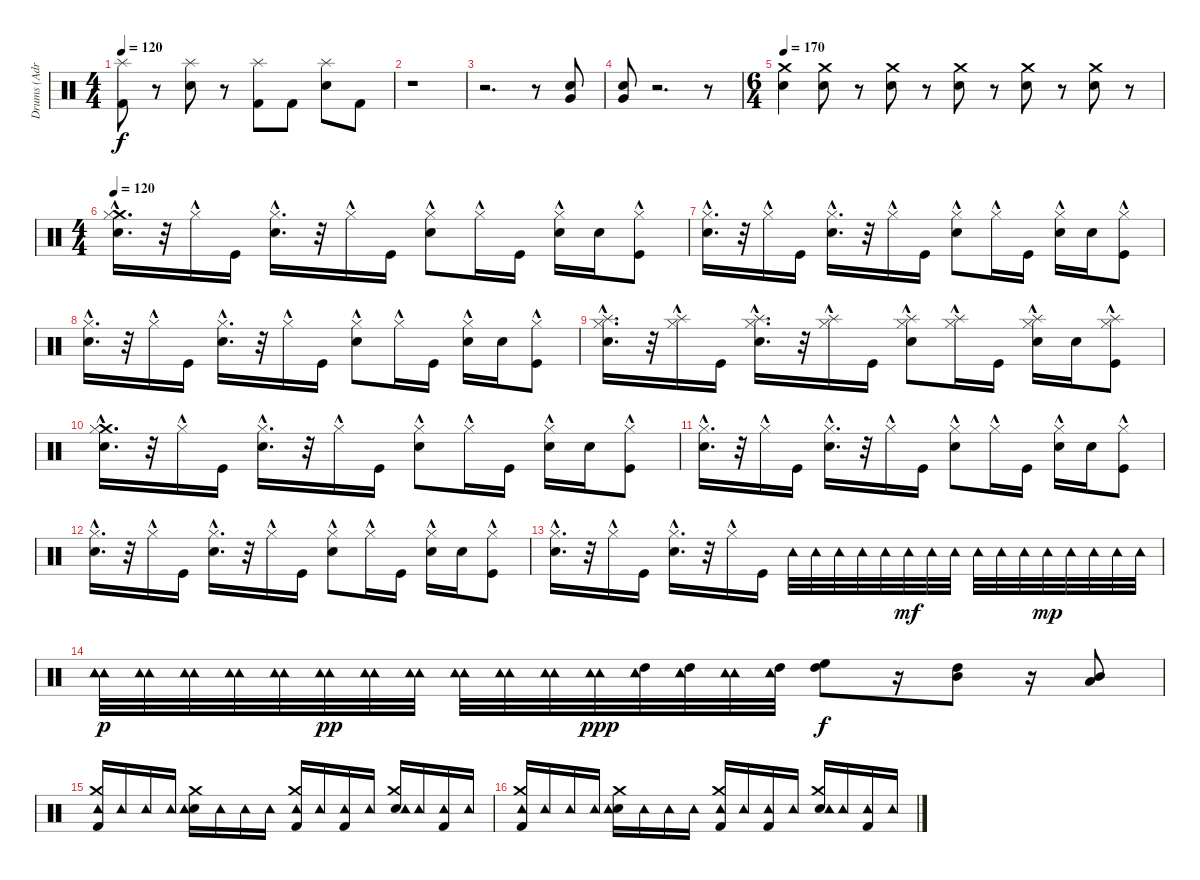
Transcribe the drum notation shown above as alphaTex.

\track ("Drums (Adrian Young)" "Drums (Adr") {instrument percussion}
\staff {score}
\articulation defaults
\ts (4 4)
\tempo 120
\clef neutral
\ks c
("Kick (hit) 2" "Splash (hit)").8{dy f} r.8 ("Snare (hit) 2" "Splash (hit)").8 r.8 ("Kick (hit) 2" "Splash (hit)").8 "Kick (hit) 2".8 ("Snare (hit) 2" "Splash (hit)").8 "Kick (hit) 2".8 |
r.1 |
r.2{d} r.8 ("Very Low Tom (hit)" "Snare (hit) 2").8 |
("Very Low Tom (hit)" "Snare (hit) 2").8 r.2{d} r.8 |
\ts (6 4)
\tempo 170
("Crash medium (hit)" "Snare (hit) 2").4 ("Crash medium (hit)" "Snare (hit) 2").8 r.8 ("Crash medium (hit)" "Snare (hit) 2").8 r.8 ("Crash medium (hit)" "Snare (hit) 2").8 r.8 ("Crash medium (hit)" "Snare (hit) 2").8 r.8 ("Crash medium (hit)" "Snare (hit) 2").8 r.8 |
\ts (4 4)
\tempo 120
("Crash medium (hit)"{hac} "Hi-Hat (closed)"{hac} "Electric Snare (hit)"{hac}).16{d} r.32 "Hi-Hat (closed)"{hac}.16 "Kick (hit)".16 ("Hi-Hat (closed)"{hac} "Electric Snare (hit)"{hac}).16{d} r.32 "Hi-Hat (closed)"{hac}.16 "Kick (hit)".16 ("Hi-Hat (closed)"{hac} "Electric Snare (hit)").8 "Hi-Hat (closed)"{hac}.16 "Kick (hit)".16 ("Hi-Hat (closed)"{hac} "Electric Snare (hit)").16 "Electric Snare (hit)".16 ("Hi-Hat (closed)"{hac} "Kick (hit)").8 |
("Hi-Hat (closed)"{hac} "Electric Snare (hit)"{hac}).16{d} r.32 "Hi-Hat (closed)"{hac}.16 "Kick (hit)".16 ("Hi-Hat (closed)"{hac} "Electric Snare (hit)"{hac}).16{d} r.32 "Hi-Hat (closed)"{hac}.16 "Kick (hit)".16 ("Hi-Hat (closed)"{hac} "Electric Snare (hit)").8 "Hi-Hat (closed)"{hac}.16 "Kick (hit)".16 ("Hi-Hat (closed)"{hac} "Electric Snare (hit)").16 "Electric Snare (hit)".16 ("Hi-Hat (closed)"{hac} "Kick (hit)").8 |
("Hi-Hat (closed)"{hac} "Electric Snare (hit)"{hac}).16{d} r.32 "Hi-Hat (closed)"{hac}.16 "Kick (hit)".16 ("Hi-Hat (closed)"{hac} "Electric Snare (hit)"{hac}).16{d} r.32 "Hi-Hat (closed)"{hac}.16 "Kick (hit)".16 ("Hi-Hat (closed)"{hac} "Electric Snare (hit)").8 "Hi-Hat (closed)"{hac}.16 "Kick (hit)".16 ("Hi-Hat (closed)"{hac} "Electric Snare (hit)").16 "Electric Snare (hit)".16 ("Hi-Hat (closed)"{hac} "Kick (hit)").8 |
("Hi-Hat (closed)"{hac} "Electric Snare (hit)"{hac} "Splash (hit)"{hac}).16{d} r.32 ("Hi-Hat (closed)"{hac} "Splash (hit)"{hac}).16 "Kick (hit)".16 ("Hi-Hat (closed)"{hac} "Electric Snare (hit)"{hac} "Splash (hit)"{hac}).16{d} r.32 ("Hi-Hat (closed)"{hac} "Splash (hit)"{hac}).16 "Kick (hit)".16 ("Hi-Hat (closed)"{hac} "Electric Snare (hit)" "Splash (hit)"{hac}).8 ("Hi-Hat (closed)"{hac} "Splash (hit)"{hac}).16 "Kick (hit)".16 ("Hi-Hat (closed)"{hac} "Electric Snare (hit)" "Splash (hit)"{hac}).16 "Electric Snare (hit)".16 ("Hi-Hat (closed)"{hac} "Kick (hit)" "Splash (hit)"{hac}).8 |
("Crash medium (hit)"{hac} "Hi-Hat (closed)"{hac} "Electric Snare (hit)"{hac}).16{d} r.32 "Hi-Hat (closed)"{hac}.16 "Kick (hit)".16 ("Hi-Hat (closed)"{hac} "Electric Snare (hit)"{hac}).16{d} r.32 "Hi-Hat (closed)"{hac}.16 "Kick (hit)".16 ("Hi-Hat (closed)"{hac} "Electric Snare (hit)").8 "Hi-Hat (closed)"{hac}.16 "Kick (hit)".16 ("Hi-Hat (closed)"{hac} "Electric Snare (hit)").16 "Electric Snare (hit)".16 ("Hi-Hat (closed)"{hac} "Kick (hit)").8 |
("Hi-Hat (closed)"{hac} "Electric Snare (hit)"{hac}).16{d} r.32 "Hi-Hat (closed)"{hac}.16 "Kick (hit)".16 ("Hi-Hat (closed)"{hac} "Electric Snare (hit)"{hac}).16{d} r.32 "Hi-Hat (closed)"{hac}.16 "Kick (hit)".16 ("Hi-Hat (closed)"{hac} "Electric Snare (hit)").8 "Hi-Hat (closed)"{hac}.16 "Kick (hit)".16 ("Hi-Hat (closed)"{hac} "Electric Snare (hit)").16 "Electric Snare (hit)".16 ("Hi-Hat (closed)"{hac} "Kick (hit)").8 |
("Hi-Hat (closed)"{hac} "Electric Snare (hit)"{hac}).16{d} r.32 "Hi-Hat (closed)"{hac}.16 "Kick (hit)".16 ("Hi-Hat (closed)"{hac} "Electric Snare (hit)"{hac}).16{d} r.32 "Hi-Hat (closed)"{hac}.16 "Kick (hit)".16 ("Hi-Hat (closed)"{hac} "Electric Snare (hit)").8 "Hi-Hat (closed)"{hac}.16 "Kick (hit)".16 ("Hi-Hat (closed)"{hac} "Electric Snare (hit)").16 "Electric Snare (hit)".16 ("Hi-Hat (closed)"{hac} "Kick (hit)").8 |
("Hi-Hat (closed)"{hac} "Electric Snare (hit)"{hac}).16{d} r.32 "Hi-Hat (closed)"{hac}.16 "Kick (hit)".16 ("Hi-Hat (closed)"{hac} "Electric Snare (hit)"{hac}).16{d} r.32 "Hi-Hat (closed)"{hac}.16 "Kick (hit)".16 "Tambourine (hit)".32 "Tambourine (hit)".32 "Tambourine (hit)".32 "Tambourine (hit)".32 "Tambourine (hit)".32 "Tambourine (hit)".32{dy mf} "Tambourine (hit)".32 "Tambourine (hit)".32 "Tambourine (hit)".32 "Tambourine (hit)".32 "Tambourine (hit)".32 "Tambourine (hit)".32{dy mp} "Tambourine (hit)".32 "Tambourine (hit)".32 "Tambourine (hit)".32 "Tambourine (hit)".32 |
("Tambourine (hit)" "Tambourine (hit)" "Tambourine (hit)").32{dy p} ("Tambourine (hit)" "Tambourine (hit)").32 ("Tambourine (hit)" "Tambourine (hit)").32 ("Tambourine (hit)" "Tambourine (hit)").32 ("Tambourine (hit)" "Tambourine (hit)").32 ("Tambourine (hit)" "Tambourine (hit)").32{dy pp} ("Tambourine (hit)" "Tambourine (hit)").32 ("Tambourine (hit)" "Tambourine (hit)").32 ("Tambourine (hit)" "Tambourine (hit)").32 ("Tambourine (hit)" "Tambourine (hit)").32 ("Tambourine (hit)" "Tambourine (hit)").32 ("Tambourine (hit)" "Tambourine (hit)").32{dy ppp} ("Tambourine (hit)" "High Tom (hit)" "Tambourine (hit)").32 ("Tambourine (hit)" "High Tom (hit)" "Tambourine (hit)").32 ("Tambourine (hit)" "Tambourine (hit)").32 ("High Tom (hit)" "Tambourine (hit)" "Tambourine (hit)").32 ("High Floor Tom (hit)" "High Tom (hit)").8{dy f} r.16 ("High Tom (hit)" "Mid Tom (hit)").8 r.16 ("Mid Tom (hit)" "Low Tom (hit)").8 |
("Kick (hit) 2" "Tambourine (hit)" "Crash medium (hit)").16 "Tambourine (hit)".16 "Tambourine (hit)".16 "Tambourine (hit)".16 ("Snare (hit) 2" "Tambourine (hit)" "Crash medium (hit)").16 "Tambourine (hit)".16 "Tambourine (hit)".16 "Tambourine (hit)".16 ("Kick (hit) 2" "Tambourine (hit)" "Crash medium (hit)").16 "Tambourine (hit)".16 ("Kick (hit) 2" "Tambourine (hit)").16 "Tambourine (hit)".16 ("Snare (hit) 2" "Tambourine (hit)" "Crash medium (hit)").16 "Tambourine (hit)".16 ("Kick (hit) 2" "Tambourine (hit)").16 "Tambourine (hit)".16 |
("Kick (hit) 2" "Tambourine (hit)" "Crash medium (hit)").16 "Tambourine (hit)".16 "Tambourine (hit)".16 "Tambourine (hit)".16 ("Snare (hit) 2" "Tambourine (hit)" "Crash medium (hit)").16 "Tambourine (hit)".16 "Tambourine (hit)".16 "Tambourine (hit)".16 ("Kick (hit) 2" "Tambourine (hit)" "Crash medium (hit)").16 "Tambourine (hit)".16 ("Kick (hit) 2" "Tambourine (hit)").16 "Tambourine (hit)".16 ("Snare (hit) 2" "Tambourine (hit)" "Crash medium (hit)").16 "Tambourine (hit)".16 ("Kick (hit) 2" "Tambourine (hit)").16 "Tambourine (hit)".16
